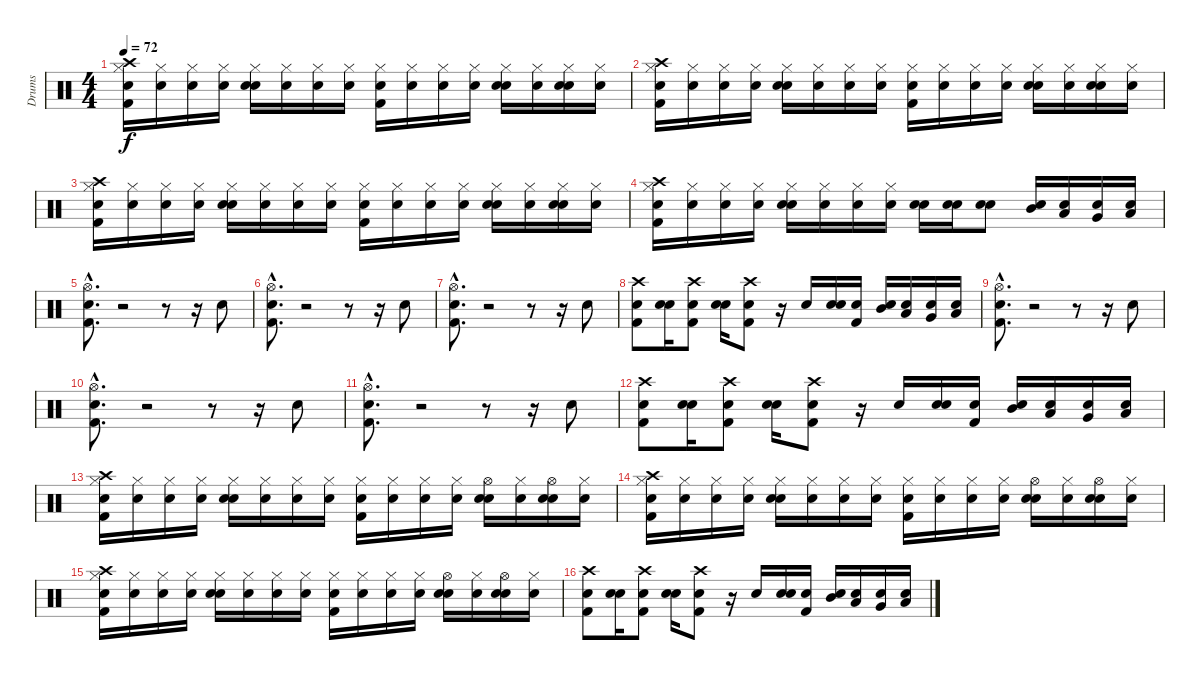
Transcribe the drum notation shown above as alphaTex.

\track ("Drums" "Drums") {instrument percussion}
\staff {score}
\articulation defaults
\ts (4 4)
\tempo 72
\clef neutral
\ks c
("Snare (hit)" "Kick (hit) 2" "Hi-Hat (closed)" "Crash high (hit)").16{dy f} ("Snare (hit)" "Hi-Hat (closed)").16 ("Snare (hit)" "Hi-Hat (closed)").16 ("Snare (hit)" "Hi-Hat (closed)").16 ("Snare (hit)" "Snare (hit) 2" "Hi-Hat (closed)").16 ("Snare (hit)" "Hi-Hat (closed)").16 ("Snare (hit)" "Hi-Hat (closed)").16 ("Snare (hit)" "Hi-Hat (closed)").16 ("Snare (hit)" "Kick (hit) 2" "Hi-Hat (closed)").16 ("Snare (hit)" "Hi-Hat (closed)").16 ("Snare (hit)" "Hi-Hat (closed)").16 ("Snare (hit)" "Hi-Hat (closed)").16 ("Snare (hit)" "Snare (hit) 2" "Hi-Hat (closed)").16 ("Snare (hit)" "Hi-Hat (closed)").16 ("Snare (hit)" "Snare (hit) 2" "Hi-Hat (closed)").16 ("Snare (hit)" "Hi-Hat (closed)").16 |
("Snare (hit)" "Kick (hit) 2" "Hi-Hat (closed)" "Crash high (hit)").16 ("Snare (hit)" "Hi-Hat (closed)").16 ("Snare (hit)" "Hi-Hat (closed)").16 ("Snare (hit)" "Hi-Hat (closed)").16 ("Snare (hit)" "Snare (hit) 2" "Hi-Hat (closed)").16 ("Snare (hit)" "Hi-Hat (closed)").16 ("Snare (hit)" "Hi-Hat (closed)").16 ("Snare (hit)" "Hi-Hat (closed)").16 ("Snare (hit)" "Kick (hit) 2" "Hi-Hat (closed)").16 ("Snare (hit)" "Hi-Hat (closed)").16 ("Snare (hit)" "Hi-Hat (closed)").16 ("Snare (hit)" "Hi-Hat (closed)").16 ("Snare (hit)" "Snare (hit) 2" "Hi-Hat (closed)").16 ("Snare (hit)" "Hi-Hat (closed)").16 ("Snare (hit)" "Snare (hit) 2" "Hi-Hat (closed)").16 ("Snare (hit)" "Hi-Hat (closed)").16 |
("Snare (hit)" "Kick (hit) 2" "Hi-Hat (closed)" "Crash high (hit)").16 ("Snare (hit)" "Hi-Hat (closed)").16 ("Snare (hit)" "Hi-Hat (closed)").16 ("Snare (hit)" "Hi-Hat (closed)").16 ("Snare (hit)" "Snare (hit) 2" "Hi-Hat (closed)").16 ("Snare (hit)" "Hi-Hat (closed)").16 ("Snare (hit)" "Hi-Hat (closed)").16 ("Snare (hit)" "Hi-Hat (closed)").16 ("Snare (hit)" "Kick (hit) 2" "Hi-Hat (closed)").16 ("Snare (hit)" "Hi-Hat (closed)").16 ("Snare (hit)" "Hi-Hat (closed)").16 ("Snare (hit)" "Hi-Hat (closed)").16 ("Snare (hit)" "Snare (hit) 2" "Hi-Hat (closed)").16 ("Snare (hit)" "Hi-Hat (closed)").16 ("Snare (hit)" "Snare (hit) 2" "Hi-Hat (closed)").16 ("Snare (hit)" "Hi-Hat (closed)").16 |
("Snare (hit)" "Kick (hit) 2" "Hi-Hat (closed)" "Crash high (hit)").16 ("Snare (hit)" "Hi-Hat (closed)").16 ("Snare (hit)" "Hi-Hat (closed)").16 ("Snare (hit)" "Hi-Hat (closed)").16 ("Snare (hit)" "Snare (hit) 2" "Hi-Hat (closed)").16 ("Snare (hit)" "Hi-Hat (closed)").16 ("Snare (hit)" "Hi-Hat (closed)").16 ("Snare (hit)" "Hi-Hat (closed)").16 ("Snare (hit)" "Snare (hit) 2").16 ("Snare (hit)" "Snare (hit) 2").16 ("Snare (hit)" "Snare (hit) 2").8 ("Snare (hit)" "Mid Tom (hit)").16 ("Snare (hit)" "Low Tom (hit)").16 ("Snare (hit)" "Very Low Tom (hit)").16 ("Snare (hit)" "Low Floor Tom (hit)").16 |
("Snare (hit)"{hac} "Kick (hit) 2"{hac} "Hi-Hat (open)"{hac}).8{d} r.2 r.8 r.16 "Snare (hit) 2".8 |
("Snare (hit)"{hac} "Kick (hit) 2"{hac} "Hi-Hat (open)"{hac}).8{d} r.2 r.8 r.16 "Snare (hit) 2".8 |
("Snare (hit)"{hac} "Kick (hit) 2"{hac} "Hi-Hat (open)"{hac}).8{d} r.2 r.8 r.16 "Snare (hit) 2".8 |
("Snare (hit)" "Kick (hit) 2" "Crash high (hit)").8 ("Snare (hit)" "Snare (hit) 2").16 ("Snare (hit)" "Kick (hit) 2" "Crash high (hit)").8 ("Snare (hit)" "Snare (hit) 2").16 ("Snare (hit)" "Kick (hit) 2" "Crash high (hit)").8 r.16 "Snare (hit) 2".16 ("Snare (hit)" "Snare (hit) 2").16 ("Snare (hit)" "Kick (hit) 2").16 ("Snare (hit)" "Mid Tom (hit)").16 ("Snare (hit)" "Low Tom (hit)").16 ("Snare (hit)" "Very Low Tom (hit)").16 ("Snare (hit)" "Low Floor Tom (hit)").16 |
("Snare (hit)"{hac} "Kick (hit) 2"{hac} "Hi-Hat (open)"{hac}).8{d} r.2 r.8 r.16 "Snare (hit) 2".8 |
("Snare (hit)"{hac} "Kick (hit) 2"{hac} "Hi-Hat (open)"{hac}).8{d} r.2 r.8 r.16 "Snare (hit) 2".8 |
("Snare (hit)"{hac} "Kick (hit) 2"{hac} "Hi-Hat (open)"{hac}).8{d} r.2 r.8 r.16 "Snare (hit) 2".8 |
("Snare (hit)" "Kick (hit) 2" "Crash high (hit)").8 ("Snare (hit)" "Snare (hit) 2").16 ("Snare (hit)" "Kick (hit) 2" "Crash high (hit)").8 ("Snare (hit)" "Snare (hit) 2").16 ("Snare (hit)" "Kick (hit) 2" "Crash high (hit)").8 r.16 "Snare (hit) 2".16 ("Snare (hit)" "Snare (hit) 2").16 ("Snare (hit)" "Kick (hit) 2").16 ("Snare (hit)" "Mid Tom (hit)").16 ("Snare (hit)" "Low Tom (hit)").16 ("Snare (hit)" "Very Low Tom (hit)").16 ("Snare (hit)" "Low Floor Tom (hit)").16 |
("Snare (hit)" "Kick (hit) 2" "Hi-Hat (closed)" "Crash high (hit)").16 ("Snare (hit)" "Hi-Hat (closed)").16 ("Snare (hit)" "Hi-Hat (closed)").16 ("Snare (hit)" "Hi-Hat (closed)").16 ("Snare (hit)" "Snare (hit) 2" "Hi-Hat (closed)").16 ("Snare (hit)" "Hi-Hat (closed)").16 ("Snare (hit)" "Hi-Hat (closed)").16 ("Snare (hit)" "Hi-Hat (closed)").16 ("Snare (hit)" "Kick (hit) 2" "Hi-Hat (closed)").16 ("Snare (hit)" "Hi-Hat (closed)").16 ("Snare (hit)" "Hi-Hat (closed)").16 ("Snare (hit)" "Hi-Hat (closed)").16 ("Snare (hit)" "Snare (hit) 2" "Hi-Hat (open)").16 ("Snare (hit)" "Hi-Hat (closed)").16 ("Snare (hit)" "Snare (hit) 2" "Hi-Hat (open)").16 ("Snare (hit)" "Hi-Hat (closed)").16 |
("Snare (hit)" "Kick (hit) 2" "Hi-Hat (closed)" "Crash high (hit)").16 ("Snare (hit)" "Hi-Hat (closed)").16 ("Snare (hit)" "Hi-Hat (closed)").16 ("Snare (hit)" "Hi-Hat (closed)").16 ("Snare (hit)" "Snare (hit) 2" "Hi-Hat (closed)").16 ("Snare (hit)" "Hi-Hat (closed)").16 ("Snare (hit)" "Hi-Hat (closed)").16 ("Snare (hit)" "Hi-Hat (closed)").16 ("Snare (hit)" "Kick (hit) 2" "Hi-Hat (closed)").16 ("Snare (hit)" "Hi-Hat (closed)").16 ("Snare (hit)" "Hi-Hat (closed)").16 ("Snare (hit)" "Hi-Hat (closed)").16 ("Snare (hit)" "Snare (hit) 2" "Hi-Hat (open)").16 ("Snare (hit)" "Hi-Hat (closed)").16 ("Snare (hit)" "Snare (hit) 2" "Hi-Hat (open)").16 ("Snare (hit)" "Hi-Hat (closed)").16 |
("Snare (hit)" "Kick (hit) 2" "Hi-Hat (closed)" "Crash high (hit)").16 ("Snare (hit)" "Hi-Hat (closed)").16 ("Snare (hit)" "Hi-Hat (closed)").16 ("Snare (hit)" "Hi-Hat (closed)").16 ("Snare (hit)" "Snare (hit) 2" "Hi-Hat (closed)").16 ("Snare (hit)" "Hi-Hat (closed)").16 ("Snare (hit)" "Hi-Hat (closed)").16 ("Snare (hit)" "Hi-Hat (closed)").16 ("Snare (hit)" "Kick (hit) 2" "Hi-Hat (closed)").16 ("Snare (hit)" "Hi-Hat (closed)").16 ("Snare (hit)" "Hi-Hat (closed)").16 ("Snare (hit)" "Hi-Hat (closed)").16 ("Snare (hit)" "Snare (hit) 2" "Hi-Hat (open)").16 ("Snare (hit)" "Hi-Hat (closed)").16 ("Snare (hit)" "Snare (hit) 2" "Hi-Hat (open)").16 ("Snare (hit)" "Hi-Hat (closed)").16 |
("Snare (hit)" "Kick (hit) 2" "Crash high (hit)").8 ("Snare (hit)" "Snare (hit) 2").16 ("Snare (hit)" "Kick (hit) 2" "Crash high (hit)").8 ("Snare (hit)" "Snare (hit) 2").16 ("Snare (hit)" "Kick (hit) 2" "Crash high (hit)").8 r.16 "Snare (hit) 2".16 ("Snare (hit)" "Snare (hit) 2").16 ("Snare (hit)" "Kick (hit) 2").16 ("Snare (hit)" "Mid Tom (hit)").16 ("Snare (hit)" "Low Tom (hit)").16 ("Snare (hit)" "Very Low Tom (hit)").16 ("Snare (hit)" "Low Floor Tom (hit)").16
